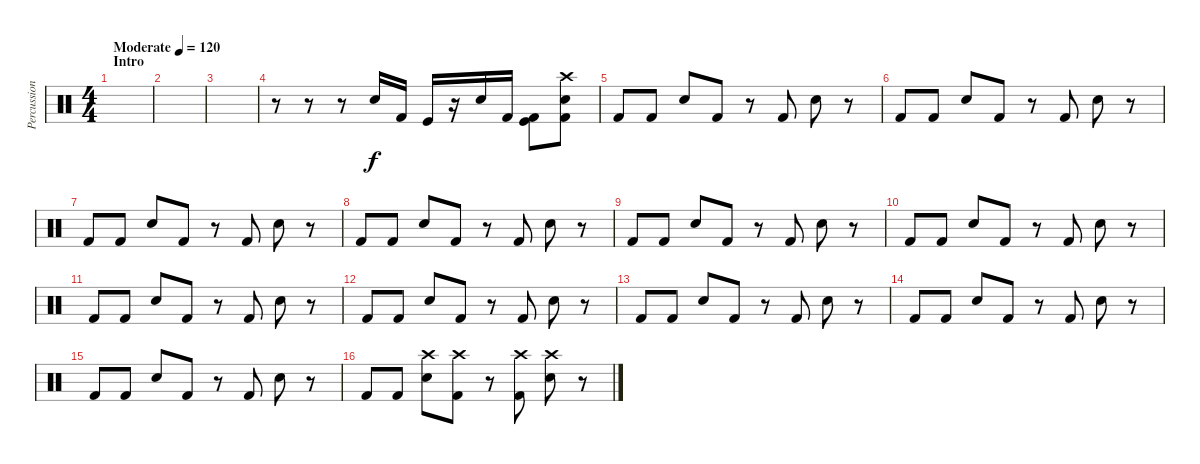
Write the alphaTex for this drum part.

\track ("Percussion" "Percussion") {instrument percussion}
\staff {score}
\articulation defaults
\ts (4 4)
\section ("" "Intro")
\tempo (120 "Moderate")
\clef neutral
\ks c
|
|
|
r.8 r.8 r.8 "Snare (hit) 2".16 "Kick (hit) 2".16 "Kick (hit)".16 r.16 "Snare (hit) 2".16 "Kick (hit) 2".16 ("Kick (hit)" "Kick (hit) 2").8 ("Kick (hit) 2" "Snare (hit) 2" "Crash high (hit)").8 |
"Kick (hit) 2".8 "Kick (hit) 2".8 "Snare (hit) 2".8 "Kick (hit) 2".8 r.8 "Kick (hit) 2".8 "Snare (hit) 2".8 r.8 |
"Kick (hit) 2".8 "Kick (hit) 2".8 "Snare (hit) 2".8 "Kick (hit) 2".8 r.8 "Kick (hit) 2".8 "Snare (hit) 2".8 r.8 |
"Kick (hit) 2".8 "Kick (hit) 2".8 "Snare (hit) 2".8 "Kick (hit) 2".8 r.8 "Kick (hit) 2".8 "Snare (hit) 2".8 r.8 |
"Kick (hit) 2".8 "Kick (hit) 2".8 "Snare (hit) 2".8 "Kick (hit) 2".8 r.8 "Kick (hit) 2".8 "Snare (hit) 2".8 r.8 |
"Kick (hit) 2".8 "Kick (hit) 2".8 "Snare (hit) 2".8 "Kick (hit) 2".8 r.8 "Kick (hit) 2".8 "Snare (hit) 2".8 r.8 |
"Kick (hit) 2".8 "Kick (hit) 2".8 "Snare (hit) 2".8 "Kick (hit) 2".8 r.8 "Kick (hit) 2".8 "Snare (hit) 2".8 r.8 |
"Kick (hit) 2".8 "Kick (hit) 2".8 "Snare (hit) 2".8 "Kick (hit) 2".8 r.8 "Kick (hit) 2".8 "Snare (hit) 2".8 r.8 |
"Kick (hit) 2".8 "Kick (hit) 2".8 "Snare (hit) 2".8 "Kick (hit) 2".8 r.8 "Kick (hit) 2".8 "Snare (hit) 2".8 r.8 |
"Kick (hit) 2".8 "Kick (hit) 2".8 "Snare (hit) 2".8 "Kick (hit) 2".8 r.8 "Kick (hit) 2".8 "Snare (hit) 2".8 r.8 |
"Kick (hit) 2".8 "Kick (hit) 2".8 "Snare (hit) 2".8 "Kick (hit) 2".8 r.8 "Kick (hit) 2".8 "Snare (hit) 2".8 r.8 |
"Kick (hit) 2".8 "Kick (hit) 2".8 "Snare (hit) 2".8 "Kick (hit) 2".8 r.8 "Kick (hit) 2".8 "Snare (hit) 2".8 r.8 |
"Kick (hit) 2".8 "Kick (hit) 2".8 ("Snare (hit) 2" "Crash high (hit)").8 ("Kick (hit) 2" "Crash high (hit)").8 r.8 ("Kick (hit) 2" "Crash high (hit)").8 ("Snare (hit) 2" "Crash high (hit)").8 r.8
